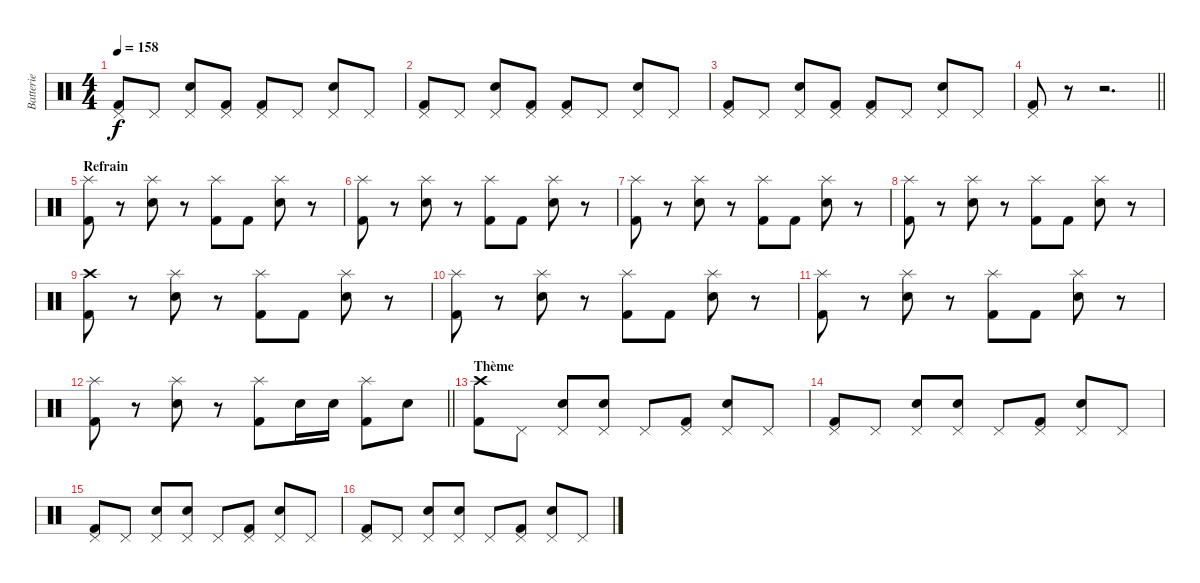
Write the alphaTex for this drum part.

\track ("Batterie" "Batterie") {instrument percussion}
\staff {score}
\articulation defaults
\ts (4 4)
\tempo 158
\clef neutral
\ks c
("Pedal Hi-Hat (hit)" "Kick (hit) 2").8{dy f} "Pedal Hi-Hat (hit)".8 ("Pedal Hi-Hat (hit)" "Electric Snare (hit)").8 ("Pedal Hi-Hat (hit)" "Kick (hit) 2").8 ("Pedal Hi-Hat (hit)" "Kick (hit) 2").8 "Pedal Hi-Hat (hit)".8 ("Pedal Hi-Hat (hit)" "Electric Snare (hit)").8 "Pedal Hi-Hat (hit)".8 |
("Pedal Hi-Hat (hit)" "Kick (hit) 2").8 "Pedal Hi-Hat (hit)".8 ("Pedal Hi-Hat (hit)" "Electric Snare (hit)").8 ("Pedal Hi-Hat (hit)" "Kick (hit) 2").8 ("Pedal Hi-Hat (hit)" "Kick (hit) 2").8 "Pedal Hi-Hat (hit)".8 ("Pedal Hi-Hat (hit)" "Electric Snare (hit)").8 "Pedal Hi-Hat (hit)".8 |
("Pedal Hi-Hat (hit)" "Kick (hit) 2").8 "Pedal Hi-Hat (hit)".8 ("Pedal Hi-Hat (hit)" "Electric Snare (hit)").8 ("Pedal Hi-Hat (hit)" "Kick (hit) 2").8 ("Pedal Hi-Hat (hit)" "Kick (hit) 2").8 "Pedal Hi-Hat (hit)".8 ("Pedal Hi-Hat (hit)" "Electric Snare (hit)").8 "Pedal Hi-Hat (hit)".8 |
\barLineRight lightlight
("Pedal Hi-Hat (hit)" "Kick (hit) 2").8 r.8 r.2{d} |
\section ("" "Refrain")
("Splash (hit)" "Kick (hit) 2").8 r.8 ("Splash (hit)" "Electric Snare (hit)").8 r.8 ("Splash (hit)" "Kick (hit) 2").8 "Kick (hit) 2".8 ("Splash (hit)" "Electric Snare (hit)").8 r.8 |
("Splash (hit)" "Kick (hit) 2").8 r.8 ("Splash (hit)" "Electric Snare (hit)").8 r.8 ("Splash (hit)" "Kick (hit) 2").8 "Kick (hit) 2".8 ("Splash (hit)" "Electric Snare (hit)").8 r.8 |
("Splash (hit)" "Kick (hit) 2").8 r.8 ("Splash (hit)" "Electric Snare (hit)").8 r.8 ("Splash (hit)" "Kick (hit) 2").8 "Kick (hit) 2".8 ("Splash (hit)" "Electric Snare (hit)").8 r.8 |
("Splash (hit)" "Kick (hit) 2").8 r.8 ("Splash (hit)" "Electric Snare (hit)").8 r.8 ("Splash (hit)" "Kick (hit) 2").8 "Kick (hit) 2".8 ("Splash (hit)" "Electric Snare (hit)").8 r.8 |
("Crash high (hit)" "Kick (hit) 2").8 r.8 ("Splash (hit)" "Electric Snare (hit)").8 r.8 ("Splash (hit)" "Kick (hit) 2").8 "Kick (hit) 2".8 ("Splash (hit)" "Electric Snare (hit)").8 r.8 |
("Splash (hit)" "Kick (hit) 2").8 r.8 ("Splash (hit)" "Electric Snare (hit)").8 r.8 ("Splash (hit)" "Kick (hit) 2").8 "Kick (hit) 2".8 ("Splash (hit)" "Electric Snare (hit)").8 r.8 |
("Splash (hit)" "Kick (hit) 2").8 r.8 ("Splash (hit)" "Electric Snare (hit)").8 r.8 ("Splash (hit)" "Kick (hit) 2").8 "Kick (hit) 2".8 ("Splash (hit)" "Electric Snare (hit)").8 r.8 |
\barLineRight lightlight
("Splash (hit)" "Kick (hit) 2").8 r.8 ("Splash (hit)" "Electric Snare (hit)").8 r.8 ("Splash (hit)" "Kick (hit) 2").8 "Electric Snare (hit)".16 "Electric Snare (hit)".16 ("Splash (hit)" "Kick (hit) 2").8 "Electric Snare (hit)".8 |
\section ("" "Thème")
("Crash high (hit)" "Kick (hit) 2").8 "Pedal Hi-Hat (hit)".8 ("Pedal Hi-Hat (hit)" "Electric Snare (hit)").8 ("Pedal Hi-Hat (hit)" "Electric Snare (hit)").8 "Pedal Hi-Hat (hit)".8 ("Pedal Hi-Hat (hit)" "Kick (hit) 2").8 ("Pedal Hi-Hat (hit)" "Electric Snare (hit)").8 "Pedal Hi-Hat (hit)".8 |
("Pedal Hi-Hat (hit)" "Kick (hit) 2").8 "Pedal Hi-Hat (hit)".8 ("Pedal Hi-Hat (hit)" "Electric Snare (hit)").8 ("Pedal Hi-Hat (hit)" "Electric Snare (hit)").8 "Pedal Hi-Hat (hit)".8 ("Pedal Hi-Hat (hit)" "Kick (hit) 2").8 ("Pedal Hi-Hat (hit)" "Electric Snare (hit)").8 "Pedal Hi-Hat (hit)".8 |
("Pedal Hi-Hat (hit)" "Kick (hit) 2").8 "Pedal Hi-Hat (hit)".8 ("Pedal Hi-Hat (hit)" "Electric Snare (hit)").8 ("Pedal Hi-Hat (hit)" "Electric Snare (hit)").8 "Pedal Hi-Hat (hit)".8 ("Pedal Hi-Hat (hit)" "Kick (hit) 2").8 ("Pedal Hi-Hat (hit)" "Electric Snare (hit)").8 "Pedal Hi-Hat (hit)".8 |
("Pedal Hi-Hat (hit)" "Kick (hit) 2").8 "Pedal Hi-Hat (hit)".8 ("Pedal Hi-Hat (hit)" "Electric Snare (hit)").8 ("Pedal Hi-Hat (hit)" "Electric Snare (hit)").8 "Pedal Hi-Hat (hit)".8 ("Pedal Hi-Hat (hit)" "Kick (hit) 2").8 ("Pedal Hi-Hat (hit)" "Electric Snare (hit)").8 "Pedal Hi-Hat (hit)".8
